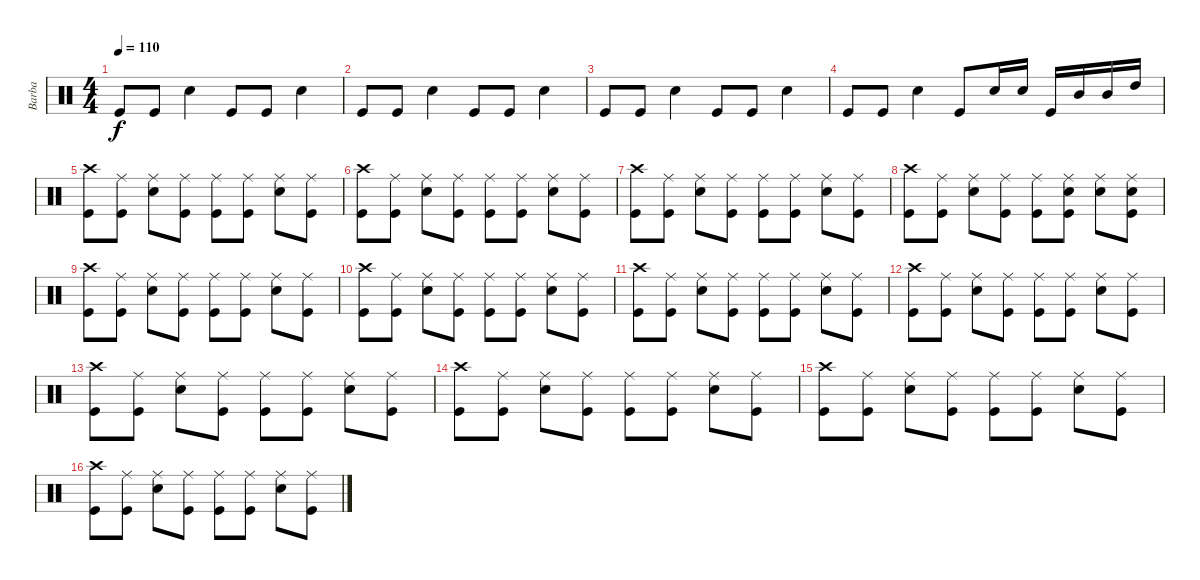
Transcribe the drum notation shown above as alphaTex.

\track ("Barba" "Barba") {instrument percussion}
\staff {score}
\articulation defaults
\ts (4 4)
\tempo 110
\clef neutral
\ks c "Kick (hit)".8{dy f} "Kick (hit)".8 "Electric Snare (hit)".4 "Kick (hit)".8 "Kick (hit)".8 "Electric Snare (hit)".4
|
"Kick (hit)".8 "Kick (hit)".8 "Electric Snare (hit)".4 "Kick (hit)".8 "Kick (hit)".8 "Electric Snare (hit)".4 |
"Kick (hit)".8 "Kick (hit)".8 "Electric Snare (hit)".4 "Kick (hit)".8 "Kick (hit)".8 "Electric Snare (hit)".4 |
"Kick (hit)".8 "Kick (hit)".8 "Electric Snare (hit)".4 "Kick (hit)".8 "Electric Snare (hit)".16 "Electric Snare (hit)".16 "Kick (hit)".16 "Mid Tom (hit)".16 "Mid Tom (hit)".16 "High Tom (hit)".16 |
("Crash high (hit)" "Kick (hit)").8 ("Ride (middle)" "Kick (hit)").8 ("Ride (middle)" "Electric Snare (hit)").8 ("Ride (middle)" "Kick (hit)").8 ("Ride (middle)" "Kick (hit)").8 ("Ride (middle)" "Kick (hit)").8 ("Ride (middle)" "Electric Snare (hit)").8 ("Ride (middle)" "Kick (hit)").8 |
("Crash high (hit)" "Kick (hit)").8 ("Ride (middle)" "Kick (hit)").8 ("Ride (middle)" "Electric Snare (hit)").8 ("Ride (middle)" "Kick (hit)").8 ("Ride (middle)" "Kick (hit)").8 ("Ride (middle)" "Kick (hit)").8 ("Ride (middle)" "Electric Snare (hit)").8 ("Ride (middle)" "Kick (hit)").8 |
("Crash high (hit)" "Kick (hit)").8 ("Ride (middle)" "Kick (hit)").8 ("Ride (middle)" "Electric Snare (hit)").8 ("Ride (middle)" "Kick (hit)").8 ("Ride (middle)" "Kick (hit)").8 ("Ride (middle)" "Kick (hit)").8 ("Ride (middle)" "Electric Snare (hit)").8 ("Ride (middle)" "Kick (hit)").8 |
("Crash high (hit)" "Kick (hit)").8 ("Ride (middle)" "Kick (hit)").8 ("Ride (middle)" "Electric Snare (hit)").8 ("Ride (middle)" "Kick (hit)").8 ("Ride (middle)" "Kick (hit)").8 ("Ride (middle)" "Electric Snare (hit)" "Kick (hit)").8 ("Ride (middle)" "Electric Snare (hit)").8 ("Ride (middle)" "Electric Snare (hit)" "Kick (hit)").8 |
("Crash high (hit)" "Kick (hit)").8 ("Ride (middle)" "Kick (hit)").8 ("Ride (middle)" "Electric Snare (hit)").8 ("Ride (middle)" "Kick (hit)").8 ("Ride (middle)" "Kick (hit)").8 ("Ride (middle)" "Kick (hit)").8 ("Ride (middle)" "Electric Snare (hit)").8 ("Ride (middle)" "Kick (hit)").8 |
("Crash high (hit)" "Kick (hit)").8 ("Ride (middle)" "Kick (hit)").8 ("Ride (middle)" "Electric Snare (hit)").8 ("Ride (middle)" "Kick (hit)").8 ("Ride (middle)" "Kick (hit)").8 ("Ride (middle)" "Kick (hit)").8 ("Ride (middle)" "Electric Snare (hit)").8 ("Ride (middle)" "Kick (hit)").8 |
("Crash high (hit)" "Kick (hit)").8 ("Ride (middle)" "Kick (hit)").8 ("Ride (middle)" "Electric Snare (hit)").8 ("Ride (middle)" "Kick (hit)").8 ("Ride (middle)" "Kick (hit)").8 ("Ride (middle)" "Kick (hit)").8 ("Ride (middle)" "Electric Snare (hit)").8 ("Ride (middle)" "Kick (hit)").8 |
("Crash high (hit)" "Kick (hit)").8 ("Ride (middle)" "Kick (hit)").8 ("Ride (middle)" "Electric Snare (hit)").8 ("Ride (middle)" "Kick (hit)").8 ("Ride (middle)" "Kick (hit)").8 ("Ride (middle)" "Kick (hit)").8 ("Ride (middle)" "Electric Snare (hit)").8 ("Ride (middle)" "Kick (hit)").8 |
("Crash high (hit)" "Kick (hit)").8 ("Ride (middle)" "Kick (hit)").8 ("Ride (middle)" "Electric Snare (hit)").8 ("Ride (middle)" "Kick (hit)").8 ("Ride (middle)" "Kick (hit)").8 ("Ride (middle)" "Kick (hit)").8 ("Ride (middle)" "Electric Snare (hit)").8 ("Ride (middle)" "Kick (hit)").8 |
("Crash high (hit)" "Kick (hit)").8 ("Ride (middle)" "Kick (hit)").8 ("Ride (middle)" "Electric Snare (hit)").8 ("Ride (middle)" "Kick (hit)").8 ("Ride (middle)" "Kick (hit)").8 ("Ride (middle)" "Kick (hit)").8 ("Ride (middle)" "Electric Snare (hit)").8 ("Ride (middle)" "Kick (hit)").8 |
("Crash high (hit)" "Kick (hit)").8 ("Ride (middle)" "Kick (hit)").8 ("Ride (middle)" "Electric Snare (hit)").8 ("Ride (middle)" "Kick (hit)").8 ("Ride (middle)" "Kick (hit)").8 ("Ride (middle)" "Kick (hit)").8 ("Ride (middle)" "Electric Snare (hit)").8 ("Ride (middle)" "Kick (hit)").8 |
("Crash high (hit)" "Kick (hit)").8 ("Ride (middle)" "Kick (hit)").8 ("Ride (middle)" "Electric Snare (hit)").8 ("Ride (middle)" "Kick (hit)").8 ("Ride (middle)" "Kick (hit)").8 ("Ride (middle)" "Kick (hit)").8 ("Ride (middle)" "Electric Snare (hit)").8 ("Ride (middle)" "Kick (hit)").8
